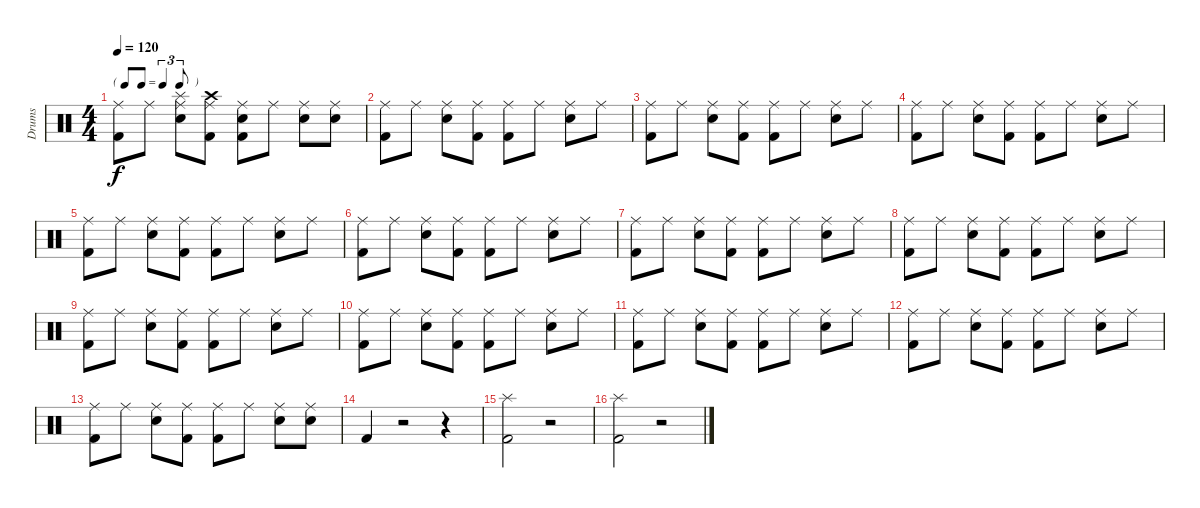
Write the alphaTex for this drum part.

\track ("Drums" "Drums") {instrument percussion}
\staff {score}
\articulation defaults
\ts (4 4)
\tf triplet8th
\tempo 120
\clef neutral
\ks c
("Ride (middle)" "Kick (hit) 2").8{dy f} "Ride (middle)".8 ("Ride (middle)" "Electric Snare (hit)" "Splash (hit)").8 ("Ride (middle)" "Kick (hit) 2" "Crash high (hit)").8 ("Ride (middle)" "Kick (hit) 2" "Electric Snare (hit)").8 "Ride (middle)".8 ("Ride (middle)" "Electric Snare (hit)").8 ("Ride (middle)" "Electric Snare (hit)").8 |
("Ride (middle)" "Kick (hit) 2").8 "Ride (middle)".8 ("Ride (middle)" "Electric Snare (hit)").8 ("Ride (middle)" "Kick (hit) 2").8 ("Ride (middle)" "Kick (hit) 2").8 "Ride (middle)".8 ("Ride (middle)" "Electric Snare (hit)").8 "Ride (middle)".8 |
("Ride (middle)" "Kick (hit) 2").8 "Ride (middle)".8 ("Ride (middle)" "Electric Snare (hit)").8 ("Ride (middle)" "Kick (hit) 2").8 ("Ride (middle)" "Kick (hit) 2").8 "Ride (middle)".8 ("Ride (middle)" "Electric Snare (hit)").8 "Ride (middle)".8 |
("Ride (middle)" "Kick (hit) 2").8 "Ride (middle)".8 ("Ride (middle)" "Electric Snare (hit)").8 ("Ride (middle)" "Kick (hit) 2").8 ("Ride (middle)" "Kick (hit) 2").8 "Ride (middle)".8 ("Ride (middle)" "Electric Snare (hit)").8 "Ride (middle)".8 |
("Ride (middle)" "Kick (hit) 2").8 "Ride (middle)".8 ("Ride (middle)" "Electric Snare (hit)").8 ("Ride (middle)" "Kick (hit) 2").8 ("Ride (middle)" "Kick (hit) 2").8 "Ride (middle)".8 ("Ride (middle)" "Electric Snare (hit)").8 "Ride (middle)".8 |
("Ride (middle)" "Kick (hit) 2").8 "Ride (middle)".8 ("Ride (middle)" "Electric Snare (hit)").8 ("Ride (middle)" "Kick (hit) 2").8 ("Ride (middle)" "Kick (hit) 2").8 "Ride (middle)".8 ("Ride (middle)" "Electric Snare (hit)").8 "Ride (middle)".8 |
("Ride (middle)" "Kick (hit) 2").8 "Ride (middle)".8 ("Ride (middle)" "Electric Snare (hit)").8 ("Ride (middle)" "Kick (hit) 2").8 ("Ride (middle)" "Kick (hit) 2").8 "Ride (middle)".8 ("Ride (middle)" "Electric Snare (hit)").8 "Ride (middle)".8 |
("Ride (middle)" "Kick (hit) 2").8 "Ride (middle)".8 ("Ride (middle)" "Electric Snare (hit)").8 ("Ride (middle)" "Kick (hit) 2").8 ("Ride (middle)" "Kick (hit) 2").8 "Ride (middle)".8 ("Ride (middle)" "Electric Snare (hit)").8 "Ride (middle)".8 |
("Ride (middle)" "Kick (hit) 2").8 "Ride (middle)".8 ("Ride (middle)" "Electric Snare (hit)").8 ("Ride (middle)" "Kick (hit) 2").8 ("Ride (middle)" "Kick (hit) 2").8 "Ride (middle)".8 ("Ride (middle)" "Electric Snare (hit)").8 "Ride (middle)".8 |
("Ride (middle)" "Kick (hit) 2").8 "Ride (middle)".8 ("Ride (middle)" "Electric Snare (hit)").8 ("Ride (middle)" "Kick (hit) 2").8 ("Ride (middle)" "Kick (hit) 2").8 "Ride (middle)".8 ("Ride (middle)" "Electric Snare (hit)").8 "Ride (middle)".8 |
("Ride (middle)" "Kick (hit) 2").8 "Ride (middle)".8 ("Ride (middle)" "Electric Snare (hit)").8 ("Ride (middle)" "Kick (hit) 2").8 ("Ride (middle)" "Kick (hit) 2").8 "Ride (middle)".8 ("Ride (middle)" "Electric Snare (hit)").8 "Ride (middle)".8 |
("Ride (middle)" "Kick (hit) 2").8 "Ride (middle)".8 ("Ride (middle)" "Electric Snare (hit)").8 ("Ride (middle)" "Kick (hit) 2").8 ("Ride (middle)" "Kick (hit) 2").8 "Ride (middle)".8 ("Ride (middle)" "Electric Snare (hit)").8 "Ride (middle)".8 |
("Ride (middle)" "Kick (hit) 2").8 "Ride (middle)".8 ("Ride (middle)" "Electric Snare (hit)").8 ("Ride (middle)" "Kick (hit) 2").8 ("Ride (middle)" "Kick (hit) 2").8 "Ride (middle)".8 ("Ride (middle)" "Electric Snare (hit)").8 ("Ride (middle)" "Electric Snare (hit)").8 |
"Kick (hit) 2".4 r.2 r.4 |
("Splash (hit)" "Kick (hit) 2").2 r.2 |
("Splash (hit)" "Kick (hit) 2").2 r.2
